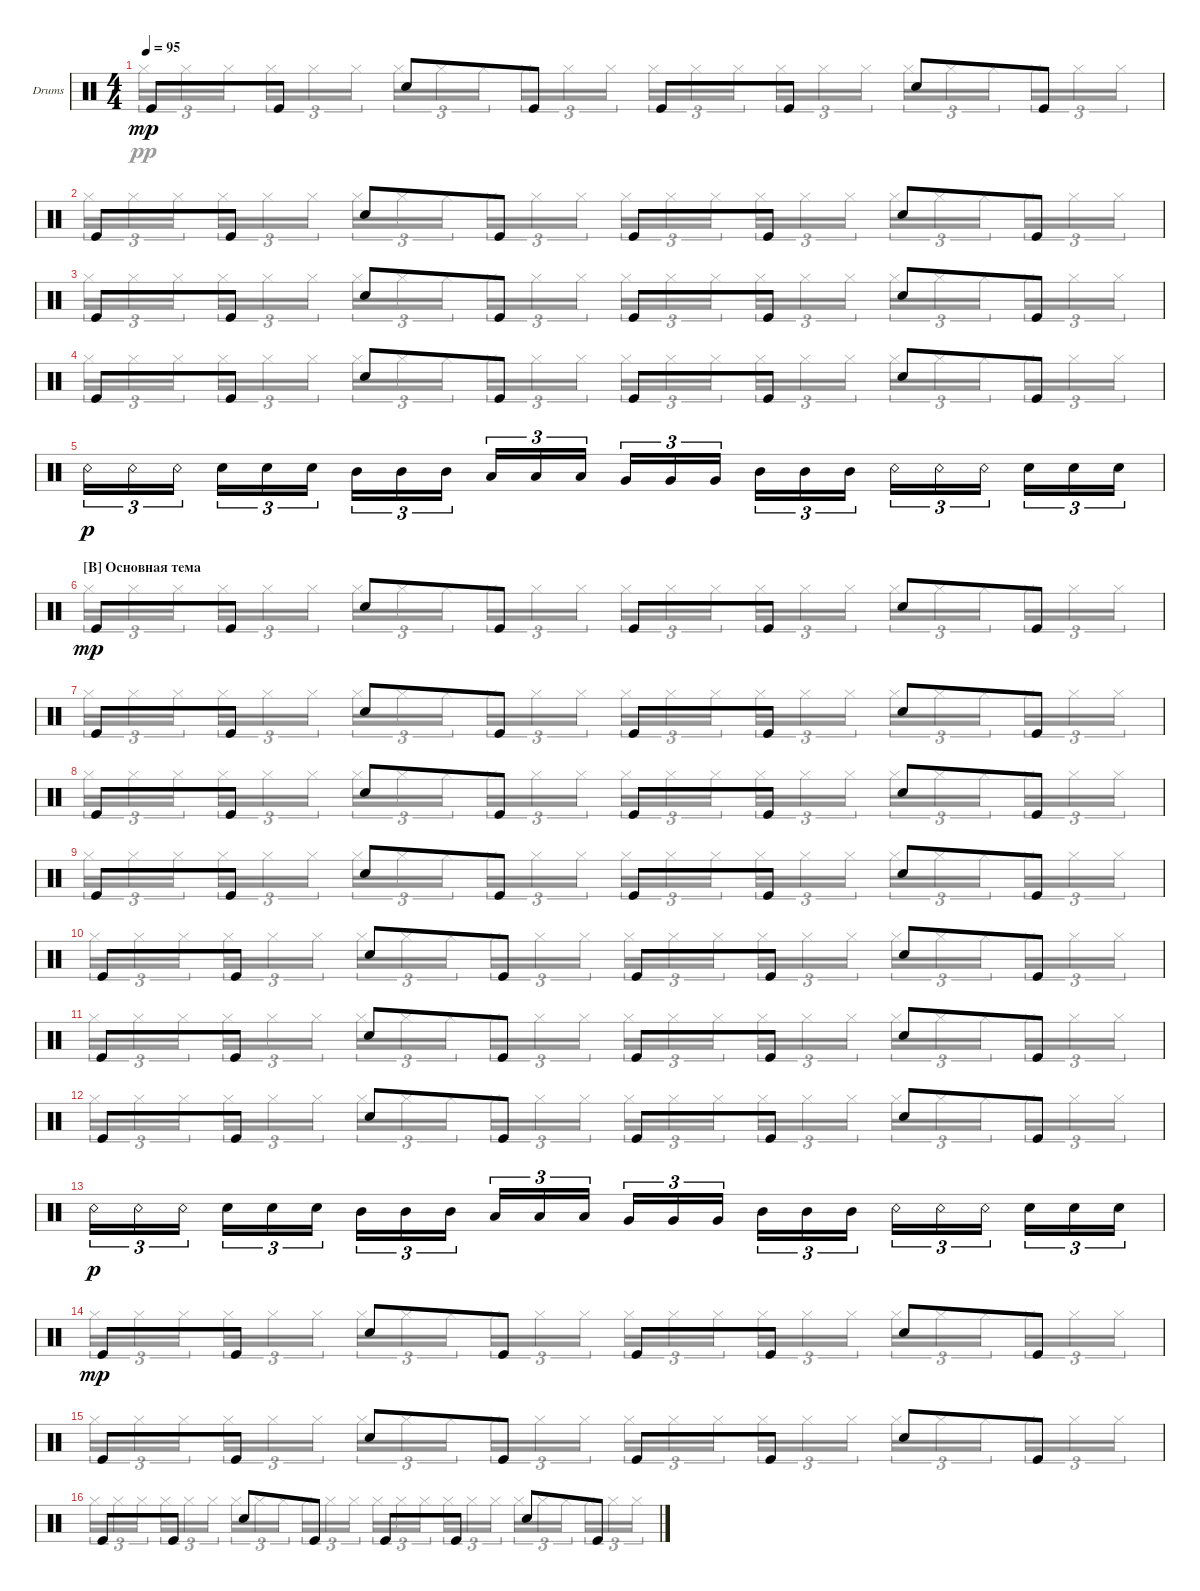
\defaultSystemsLayout 4
\bracketExtendMode groupsimilarinstruments
\firstSystemTrackNameOrientation horizontal
\otherSystemsTrackNameOrientation horizontal
\track ("Drumkit" "Drums") {instrument percussion}
\staff {score}
\articulation defaults
\voice
\ts (4 4)
\tempo 95
\clef neutral
\ks c "Kick (hit)".8{dy mp} "Kick (hit)".8 "Snare (hit) 2".8 "Kick (hit)".8 "Kick (hit)".8 "Kick (hit)".8 "Snare (hit) 2".8 "Kick (hit)".8
|
"Kick (hit)".8 "Kick (hit)".8 "Snare (hit) 2".8 "Kick (hit)".8 "Kick (hit)".8 "Kick (hit)".8 "Snare (hit) 2".8 "Kick (hit)".8 |
"Kick (hit)".8 "Kick (hit)".8 "Snare (hit) 2".8 "Kick (hit)".8 "Kick (hit)".8 "Kick (hit)".8 "Snare (hit) 2".8 "Kick (hit)".8 |
"Kick (hit)".8 "Kick (hit)".8 "Snare (hit) 2".8 "Kick (hit)".8 "Kick (hit)".8 "Kick (hit)".8 "Snare (hit) 2".8 "Kick (hit)".8 |
"Snare (rim shot)".16{tu (3 2) dy p} "Snare (rim shot)".16{tu (3 2)} "Snare (rim shot)".16{tu (3 2)} "Snare (hit) 2".16{tu (3 2)} "Snare (hit) 2".16{tu (3 2)} "Snare (hit) 2".16{tu (3 2)} "Mid Tom (hit)".16{tu (3 2)} "Mid Tom (hit)".16{tu (3 2)} "Mid Tom (hit)".16{tu (3 2)} "Low Tom (hit)".16{tu (3 2)} "Low Tom (hit)".16{tu (3 2)} "Low Tom (hit)".16{tu (3 2)} "Very Low Tom (hit)".16{tu (3 2)} "Very Low Tom (hit)".16{tu (3 2)} "Very Low Tom (hit)".16{tu (3 2)} "Mid Tom (hit)".16{tu (3 2)} "Mid Tom (hit)".16{tu (3 2)} "Mid Tom (hit)".16{tu (3 2)} "Snare (rim shot)".16{tu (3 2)} "Snare (rim shot)".16{tu (3 2)} "Snare (rim shot)".16{tu (3 2)} "Snare (hit) 2".16{tu (3 2)} "Snare (hit) 2".16{tu (3 2)} "Snare (hit) 2".16{tu (3 2)} |
\section ("B" "Основная тема")
"Kick (hit)".8{dy mp} "Kick (hit)".8 "Snare (hit) 2".8 "Kick (hit)".8 "Kick (hit)".8 "Kick (hit)".8 "Snare (hit) 2".8 "Kick (hit)".8 |
"Kick (hit)".8 "Kick (hit)".8 "Snare (hit) 2".8 "Kick (hit)".8 "Kick (hit)".8 "Kick (hit)".8 "Snare (hit) 2".8 "Kick (hit)".8 |
"Kick (hit)".8 "Kick (hit)".8 "Snare (hit) 2".8 "Kick (hit)".8 "Kick (hit)".8 "Kick (hit)".8 "Snare (hit) 2".8 "Kick (hit)".8 |
"Kick (hit)".8 "Kick (hit)".8 "Snare (hit) 2".8 "Kick (hit)".8 "Kick (hit)".8 "Kick (hit)".8 "Snare (hit) 2".8 "Kick (hit)".8 |
"Kick (hit)".8 "Kick (hit)".8 "Snare (hit) 2".8 "Kick (hit)".8 "Kick (hit)".8 "Kick (hit)".8 "Snare (hit) 2".8 "Kick (hit)".8 |
"Kick (hit)".8 "Kick (hit)".8 "Snare (hit) 2".8 "Kick (hit)".8 "Kick (hit)".8 "Kick (hit)".8 "Snare (hit) 2".8 "Kick (hit)".8 |
"Kick (hit)".8 "Kick (hit)".8 "Snare (hit) 2".8 "Kick (hit)".8 "Kick (hit)".8 "Kick (hit)".8 "Snare (hit) 2".8 "Kick (hit)".8 |
"Snare (rim shot)".16{tu (3 2) dy p} "Snare (rim shot)".16{tu (3 2)} "Snare (rim shot)".16{tu (3 2)} "Snare (hit) 2".16{tu (3 2)} "Snare (hit) 2".16{tu (3 2)} "Snare (hit) 2".16{tu (3 2)} "Mid Tom (hit)".16{tu (3 2)} "Mid Tom (hit)".16{tu (3 2)} "Mid Tom (hit)".16{tu (3 2)} "Low Tom (hit)".16{tu (3 2)} "Low Tom (hit)".16{tu (3 2)} "Low Tom (hit)".16{tu (3 2)} "Very Low Tom (hit)".16{tu (3 2)} "Very Low Tom (hit)".16{tu (3 2)} "Very Low Tom (hit)".16{tu (3 2)} "Mid Tom (hit)".16{tu (3 2)} "Mid Tom (hit)".16{tu (3 2)} "Mid Tom (hit)".16{tu (3 2)} "Snare (rim shot)".16{tu (3 2)} "Snare (rim shot)".16{tu (3 2)} "Snare (rim shot)".16{tu (3 2)} "Snare (hit) 2".16{tu (3 2)} "Snare (hit) 2".16{tu (3 2)} "Snare (hit) 2".16{tu (3 2)} |
"Kick (hit)".8{dy mp} "Kick (hit)".8 "Snare (hit) 2".8 "Kick (hit)".8 "Kick (hit)".8 "Kick (hit)".8 "Snare (hit) 2".8 "Kick (hit)".8 |
"Kick (hit)".8 "Kick (hit)".8 "Snare (hit) 2".8 "Kick (hit)".8 "Kick (hit)".8 "Kick (hit)".8 "Snare (hit) 2".8 "Kick (hit)".8 |
"Kick (hit)".8 "Kick (hit)".8 "Snare (hit) 2".8 "Kick (hit)".8 "Kick (hit)".8 "Kick (hit)".8 "Snare (hit) 2".8 "Kick (hit)".8
\voice
\clef neutral
\ottava regular
\simile none
\ks c "Hi-Hat (closed)".16{tu (3 2) dy pp} "Hi-Hat (closed)".16{tu (3 2)} "Hi-Hat (closed)".16{tu (3 2)} "Hi-Hat (closed)".16{tu (3 2)} "Hi-Hat (closed)".16{tu (3 2)} "Hi-Hat (closed)".16{tu (3 2)} "Hi-Hat (closed)".16{tu (3 2)} "Hi-Hat (closed)".16{tu (3 2)} "Hi-Hat (closed)".16{tu (3 2)} "Hi-Hat (closed)".16{tu (3 2)} "Hi-Hat (closed)".16{tu (3 2)} "Hi-Hat (closed)".16{tu (3 2)} "Hi-Hat (closed)".16{tu (3 2)} "Hi-Hat (closed)".16{tu (3 2)} "Hi-Hat (closed)".16{tu (3 2)} "Hi-Hat (closed)".16{tu (3 2)} "Hi-Hat (closed)".16{tu (3 2)} "Hi-Hat (closed)".16{tu (3 2)} "Hi-Hat (closed)".16{tu (3 2)} "Hi-Hat (closed)".16{tu (3 2)} "Hi-Hat (closed)".16{tu (3 2)} "Hi-Hat (closed)".16{tu (3 2)} "Hi-Hat (closed)".16{tu (3 2)} "Hi-Hat (closed)".16{tu (3 2)}
|
"Hi-Hat (closed)".16{tu (3 2)} "Hi-Hat (closed)".16{tu (3 2)} "Hi-Hat (closed)".16{tu (3 2)} "Hi-Hat (closed)".16{tu (3 2)} "Hi-Hat (closed)".16{tu (3 2)} "Hi-Hat (closed)".16{tu (3 2)} "Hi-Hat (closed)".16{tu (3 2)} "Hi-Hat (closed)".16{tu (3 2)} "Hi-Hat (closed)".16{tu (3 2)} "Hi-Hat (closed)".16{tu (3 2)} "Hi-Hat (closed)".16{tu (3 2)} "Hi-Hat (closed)".16{tu (3 2)} "Hi-Hat (closed)".16{tu (3 2)} "Hi-Hat (closed)".16{tu (3 2)} "Hi-Hat (closed)".16{tu (3 2)} "Hi-Hat (closed)".16{tu (3 2)} "Hi-Hat (closed)".16{tu (3 2)} "Hi-Hat (closed)".16{tu (3 2)} "Hi-Hat (closed)".16{tu (3 2)} "Hi-Hat (closed)".16{tu (3 2)} "Hi-Hat (closed)".16{tu (3 2)} "Hi-Hat (closed)".16{tu (3 2)} "Hi-Hat (closed)".16{tu (3 2)} "Hi-Hat (closed)".16{tu (3 2)} |
"Hi-Hat (closed)".16{tu (3 2)} "Hi-Hat (closed)".16{tu (3 2)} "Hi-Hat (closed)".16{tu (3 2)} "Hi-Hat (closed)".16{tu (3 2)} "Hi-Hat (closed)".16{tu (3 2)} "Hi-Hat (closed)".16{tu (3 2)} "Hi-Hat (closed)".16{tu (3 2)} "Hi-Hat (closed)".16{tu (3 2)} "Hi-Hat (closed)".16{tu (3 2)} "Hi-Hat (closed)".16{tu (3 2)} "Hi-Hat (closed)".16{tu (3 2)} "Hi-Hat (closed)".16{tu (3 2)} "Hi-Hat (closed)".16{tu (3 2)} "Hi-Hat (closed)".16{tu (3 2)} "Hi-Hat (closed)".16{tu (3 2)} "Hi-Hat (closed)".16{tu (3 2)} "Hi-Hat (closed)".16{tu (3 2)} "Hi-Hat (closed)".16{tu (3 2)} "Hi-Hat (closed)".16{tu (3 2)} "Hi-Hat (closed)".16{tu (3 2)} "Hi-Hat (closed)".16{tu (3 2)} "Hi-Hat (closed)".16{tu (3 2)} "Hi-Hat (closed)".16{tu (3 2)} "Hi-Hat (closed)".16{tu (3 2)} |
"Hi-Hat (closed)".16{tu (3 2)} "Hi-Hat (closed)".16{tu (3 2)} "Hi-Hat (closed)".16{tu (3 2)} "Hi-Hat (closed)".16{tu (3 2)} "Hi-Hat (closed)".16{tu (3 2)} "Hi-Hat (closed)".16{tu (3 2)} "Hi-Hat (closed)".16{tu (3 2)} "Hi-Hat (closed)".16{tu (3 2)} "Hi-Hat (closed)".16{tu (3 2)} "Hi-Hat (closed)".16{tu (3 2)} "Hi-Hat (closed)".16{tu (3 2)} "Hi-Hat (closed)".16{tu (3 2)} "Hi-Hat (closed)".16{tu (3 2)} "Hi-Hat (closed)".16{tu (3 2)} "Hi-Hat (closed)".16{tu (3 2)} "Hi-Hat (closed)".16{tu (3 2)} "Hi-Hat (closed)".16{tu (3 2)} "Hi-Hat (closed)".16{tu (3 2)} "Hi-Hat (closed)".16{tu (3 2)} "Hi-Hat (closed)".16{tu (3 2)} "Hi-Hat (closed)".16{tu (3 2)} "Hi-Hat (closed)".16{tu (3 2)} "Hi-Hat (closed)".16{tu (3 2)} "Hi-Hat (closed)".16{tu (3 2)} |
|
"Hi-Hat (closed)".16{tu (3 2)} "Hi-Hat (closed)".16{tu (3 2)} "Hi-Hat (closed)".16{tu (3 2)} "Hi-Hat (closed)".16{tu (3 2)} "Hi-Hat (closed)".16{tu (3 2)} "Hi-Hat (closed)".16{tu (3 2)} "Hi-Hat (closed)".16{tu (3 2)} "Hi-Hat (closed)".16{tu (3 2)} "Hi-Hat (closed)".16{tu (3 2)} "Hi-Hat (closed)".16{tu (3 2)} "Hi-Hat (closed)".16{tu (3 2)} "Hi-Hat (closed)".16{tu (3 2)} "Hi-Hat (closed)".16{tu (3 2)} "Hi-Hat (closed)".16{tu (3 2)} "Hi-Hat (closed)".16{tu (3 2)} "Hi-Hat (closed)".16{tu (3 2)} "Hi-Hat (closed)".16{tu (3 2)} "Hi-Hat (closed)".16{tu (3 2)} "Hi-Hat (closed)".16{tu (3 2)} "Hi-Hat (closed)".16{tu (3 2)} "Hi-Hat (closed)".16{tu (3 2)} "Hi-Hat (closed)".16{tu (3 2)} "Hi-Hat (closed)".16{tu (3 2)} "Hi-Hat (closed)".16{tu (3 2)} |
"Hi-Hat (closed)".16{tu (3 2)} "Hi-Hat (closed)".16{tu (3 2)} "Hi-Hat (closed)".16{tu (3 2)} "Hi-Hat (closed)".16{tu (3 2)} "Hi-Hat (closed)".16{tu (3 2)} "Hi-Hat (closed)".16{tu (3 2)} "Hi-Hat (closed)".16{tu (3 2)} "Hi-Hat (closed)".16{tu (3 2)} "Hi-Hat (closed)".16{tu (3 2)} "Hi-Hat (closed)".16{tu (3 2)} "Hi-Hat (closed)".16{tu (3 2)} "Hi-Hat (closed)".16{tu (3 2)} "Hi-Hat (closed)".16{tu (3 2)} "Hi-Hat (closed)".16{tu (3 2)} "Hi-Hat (closed)".16{tu (3 2)} "Hi-Hat (closed)".16{tu (3 2)} "Hi-Hat (closed)".16{tu (3 2)} "Hi-Hat (closed)".16{tu (3 2)} "Hi-Hat (closed)".16{tu (3 2)} "Hi-Hat (closed)".16{tu (3 2)} "Hi-Hat (closed)".16{tu (3 2)} "Hi-Hat (closed)".16{tu (3 2)} "Hi-Hat (closed)".16{tu (3 2)} "Hi-Hat (closed)".16{tu (3 2)} |
"Hi-Hat (closed)".16{tu (3 2)} "Hi-Hat (closed)".16{tu (3 2)} "Hi-Hat (closed)".16{tu (3 2)} "Hi-Hat (closed)".16{tu (3 2)} "Hi-Hat (closed)".16{tu (3 2)} "Hi-Hat (closed)".16{tu (3 2)} "Hi-Hat (closed)".16{tu (3 2)} "Hi-Hat (closed)".16{tu (3 2)} "Hi-Hat (closed)".16{tu (3 2)} "Hi-Hat (closed)".16{tu (3 2)} "Hi-Hat (closed)".16{tu (3 2)} "Hi-Hat (closed)".16{tu (3 2)} "Hi-Hat (closed)".16{tu (3 2)} "Hi-Hat (closed)".16{tu (3 2)} "Hi-Hat (closed)".16{tu (3 2)} "Hi-Hat (closed)".16{tu (3 2)} "Hi-Hat (closed)".16{tu (3 2)} "Hi-Hat (closed)".16{tu (3 2)} "Hi-Hat (closed)".16{tu (3 2)} "Hi-Hat (closed)".16{tu (3 2)} "Hi-Hat (closed)".16{tu (3 2)} "Hi-Hat (closed)".16{tu (3 2)} "Hi-Hat (closed)".16{tu (3 2)} "Hi-Hat (closed)".16{tu (3 2)} |
"Hi-Hat (closed)".16{tu (3 2)} "Hi-Hat (closed)".16{tu (3 2)} "Hi-Hat (closed)".16{tu (3 2)} "Hi-Hat (closed)".16{tu (3 2)} "Hi-Hat (closed)".16{tu (3 2)} "Hi-Hat (closed)".16{tu (3 2)} "Hi-Hat (closed)".16{tu (3 2)} "Hi-Hat (closed)".16{tu (3 2)} "Hi-Hat (closed)".16{tu (3 2)} "Hi-Hat (closed)".16{tu (3 2)} "Hi-Hat (closed)".16{tu (3 2)} "Hi-Hat (closed)".16{tu (3 2)} "Hi-Hat (closed)".16{tu (3 2)} "Hi-Hat (closed)".16{tu (3 2)} "Hi-Hat (closed)".16{tu (3 2)} "Hi-Hat (closed)".16{tu (3 2)} "Hi-Hat (closed)".16{tu (3 2)} "Hi-Hat (closed)".16{tu (3 2)} "Hi-Hat (closed)".16{tu (3 2)} "Hi-Hat (closed)".16{tu (3 2)} "Hi-Hat (closed)".16{tu (3 2)} "Hi-Hat (closed)".16{tu (3 2)} "Hi-Hat (closed)".16{tu (3 2)} "Hi-Hat (closed)".16{tu (3 2)} |
"Hi-Hat (closed)".16{tu (3 2)} "Hi-Hat (closed)".16{tu (3 2)} "Hi-Hat (closed)".16{tu (3 2)} "Hi-Hat (closed)".16{tu (3 2)} "Hi-Hat (closed)".16{tu (3 2)} "Hi-Hat (closed)".16{tu (3 2)} "Hi-Hat (closed)".16{tu (3 2)} "Hi-Hat (closed)".16{tu (3 2)} "Hi-Hat (closed)".16{tu (3 2)} "Hi-Hat (closed)".16{tu (3 2)} "Hi-Hat (closed)".16{tu (3 2)} "Hi-Hat (closed)".16{tu (3 2)} "Hi-Hat (closed)".16{tu (3 2)} "Hi-Hat (closed)".16{tu (3 2)} "Hi-Hat (closed)".16{tu (3 2)} "Hi-Hat (closed)".16{tu (3 2)} "Hi-Hat (closed)".16{tu (3 2)} "Hi-Hat (closed)".16{tu (3 2)} "Hi-Hat (closed)".16{tu (3 2)} "Hi-Hat (closed)".16{tu (3 2)} "Hi-Hat (closed)".16{tu (3 2)} "Hi-Hat (closed)".16{tu (3 2)} "Hi-Hat (closed)".16{tu (3 2)} "Hi-Hat (closed)".16{tu (3 2)} |
"Hi-Hat (closed)".16{tu (3 2)} "Hi-Hat (closed)".16{tu (3 2)} "Hi-Hat (closed)".16{tu (3 2)} "Hi-Hat (closed)".16{tu (3 2)} "Hi-Hat (closed)".16{tu (3 2)} "Hi-Hat (closed)".16{tu (3 2)} "Hi-Hat (closed)".16{tu (3 2)} "Hi-Hat (closed)".16{tu (3 2)} "Hi-Hat (closed)".16{tu (3 2)} "Hi-Hat (closed)".16{tu (3 2)} "Hi-Hat (closed)".16{tu (3 2)} "Hi-Hat (closed)".16{tu (3 2)} "Hi-Hat (closed)".16{tu (3 2)} "Hi-Hat (closed)".16{tu (3 2)} "Hi-Hat (closed)".16{tu (3 2)} "Hi-Hat (closed)".16{tu (3 2)} "Hi-Hat (closed)".16{tu (3 2)} "Hi-Hat (closed)".16{tu (3 2)} "Hi-Hat (closed)".16{tu (3 2)} "Hi-Hat (closed)".16{tu (3 2)} "Hi-Hat (closed)".16{tu (3 2)} "Hi-Hat (closed)".16{tu (3 2)} "Hi-Hat (closed)".16{tu (3 2)} "Hi-Hat (closed)".16{tu (3 2)} |
"Hi-Hat (closed)".16{tu (3 2)} "Hi-Hat (closed)".16{tu (3 2)} "Hi-Hat (closed)".16{tu (3 2)} "Hi-Hat (closed)".16{tu (3 2)} "Hi-Hat (closed)".16{tu (3 2)} "Hi-Hat (closed)".16{tu (3 2)} "Hi-Hat (closed)".16{tu (3 2)} "Hi-Hat (closed)".16{tu (3 2)} "Hi-Hat (closed)".16{tu (3 2)} "Hi-Hat (closed)".16{tu (3 2)} "Hi-Hat (closed)".16{tu (3 2)} "Hi-Hat (closed)".16{tu (3 2)} "Hi-Hat (closed)".16{tu (3 2)} "Hi-Hat (closed)".16{tu (3 2)} "Hi-Hat (closed)".16{tu (3 2)} "Hi-Hat (closed)".16{tu (3 2)} "Hi-Hat (closed)".16{tu (3 2)} "Hi-Hat (closed)".16{tu (3 2)} "Hi-Hat (closed)".16{tu (3 2)} "Hi-Hat (closed)".16{tu (3 2)} "Hi-Hat (closed)".16{tu (3 2)} "Hi-Hat (closed)".16{tu (3 2)} "Hi-Hat (closed)".16{tu (3 2)} "Hi-Hat (closed)".16{tu (3 2)} |
|
"Hi-Hat (closed)".16{tu (3 2)} "Hi-Hat (closed)".16{tu (3 2)} "Hi-Hat (closed)".16{tu (3 2)} "Hi-Hat (closed)".16{tu (3 2)} "Hi-Hat (closed)".16{tu (3 2)} "Hi-Hat (closed)".16{tu (3 2)} "Hi-Hat (closed)".16{tu (3 2)} "Hi-Hat (closed)".16{tu (3 2)} "Hi-Hat (closed)".16{tu (3 2)} "Hi-Hat (closed)".16{tu (3 2)} "Hi-Hat (closed)".16{tu (3 2)} "Hi-Hat (closed)".16{tu (3 2)} "Hi-Hat (closed)".16{tu (3 2)} "Hi-Hat (closed)".16{tu (3 2)} "Hi-Hat (closed)".16{tu (3 2)} "Hi-Hat (closed)".16{tu (3 2)} "Hi-Hat (closed)".16{tu (3 2)} "Hi-Hat (closed)".16{tu (3 2)} "Hi-Hat (closed)".16{tu (3 2)} "Hi-Hat (closed)".16{tu (3 2)} "Hi-Hat (closed)".16{tu (3 2)} "Hi-Hat (closed)".16{tu (3 2)} "Hi-Hat (closed)".16{tu (3 2)} "Hi-Hat (closed)".16{tu (3 2)} |
"Hi-Hat (closed)".16{tu (3 2)} "Hi-Hat (closed)".16{tu (3 2)} "Hi-Hat (closed)".16{tu (3 2)} "Hi-Hat (closed)".16{tu (3 2)} "Hi-Hat (closed)".16{tu (3 2)} "Hi-Hat (closed)".16{tu (3 2)} "Hi-Hat (closed)".16{tu (3 2)} "Hi-Hat (closed)".16{tu (3 2)} "Hi-Hat (closed)".16{tu (3 2)} "Hi-Hat (closed)".16{tu (3 2)} "Hi-Hat (closed)".16{tu (3 2)} "Hi-Hat (closed)".16{tu (3 2)} "Hi-Hat (closed)".16{tu (3 2)} "Hi-Hat (closed)".16{tu (3 2)} "Hi-Hat (closed)".16{tu (3 2)} "Hi-Hat (closed)".16{tu (3 2)} "Hi-Hat (closed)".16{tu (3 2)} "Hi-Hat (closed)".16{tu (3 2)} "Hi-Hat (closed)".16{tu (3 2)} "Hi-Hat (closed)".16{tu (3 2)} "Hi-Hat (closed)".16{tu (3 2)} "Hi-Hat (closed)".16{tu (3 2)} "Hi-Hat (closed)".16{tu (3 2)} "Hi-Hat (closed)".16{tu (3 2)} |
"Hi-Hat (closed)".16{tu (3 2)} "Hi-Hat (closed)".16{tu (3 2)} "Hi-Hat (closed)".16{tu (3 2)} "Hi-Hat (closed)".16{tu (3 2)} "Hi-Hat (closed)".16{tu (3 2)} "Hi-Hat (closed)".16{tu (3 2)} "Hi-Hat (closed)".16{tu (3 2)} "Hi-Hat (closed)".16{tu (3 2)} "Hi-Hat (closed)".16{tu (3 2)} "Hi-Hat (closed)".16{tu (3 2)} "Hi-Hat (closed)".16{tu (3 2)} "Hi-Hat (closed)".16{tu (3 2)} "Hi-Hat (closed)".16{tu (3 2)} "Hi-Hat (closed)".16{tu (3 2)} "Hi-Hat (closed)".16{tu (3 2)} "Hi-Hat (closed)".16{tu (3 2)} "Hi-Hat (closed)".16{tu (3 2)} "Hi-Hat (closed)".16{tu (3 2)} "Hi-Hat (closed)".16{tu (3 2)} "Hi-Hat (closed)".16{tu (3 2)} "Hi-Hat (closed)".16{tu (3 2)} "Hi-Hat (closed)".16{tu (3 2)} "Hi-Hat (closed)".16{tu (3 2)} "Hi-Hat (closed)".16{tu (3 2)}
